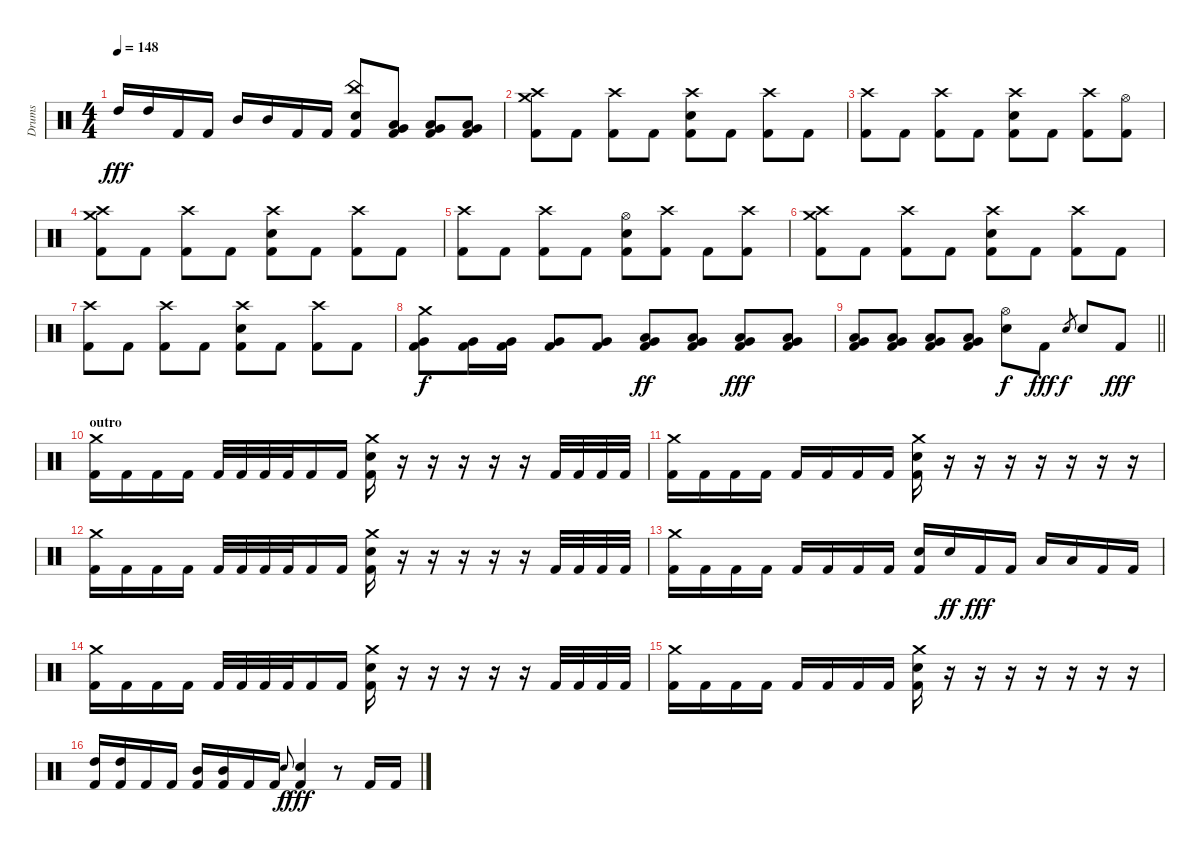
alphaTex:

\track ("Drums" "Drums") {instrument percussion}
\staff {score}
\articulation defaults
\ts (4 4)
\tempo 148
\clef neutral
\ks c "High Tom (hit)".16{dy fff} "High Tom (hit)".16 "Kick (hit) 2".16 "Kick (hit) 2".16 "Mid Tom (hit)".16 "Mid Tom (hit)".16 "Kick (hit) 2".16 "Kick (hit) 2".16
("China (hit)" "Electric Snare (hit)" "Kick (hit) 2").8 ("Low Tom (hit)" "Very Low Tom (hit)" "Kick (hit) 2").8 ("Low Tom (hit)" "Very Low Tom (hit)" "Kick (hit) 2").8 ("Low Tom (hit)" "Very Low Tom (hit)" "Kick (hit) 2").8 |
("Crash high (hit)" "Crash medium (hit)" "Kick (hit) 2").8 "Kick (hit) 2".8 ("Crash high (hit)" "Kick (hit) 2").8 "Kick (hit) 2".8 ("Crash high (hit)" "Electric Snare (hit)" "Kick (hit) 2").8 "Kick (hit) 2".8 ("Crash high (hit)" "Kick (hit) 2").8 "Kick (hit) 2".8 |
("Crash high (hit)" "Kick (hit) 2").8 "Kick (hit) 2".8 ("Crash high (hit)" "Kick (hit) 2").8 "Kick (hit) 2".8 ("Crash high (hit)" "Electric Snare (hit)" "Kick (hit) 2").8 "Kick (hit) 2".8 ("Crash high (hit)" "Kick (hit) 2").8 ("Hi-Hat (open)" "Kick (hit) 2").8 |
("Crash high (hit)" "Crash medium (hit)" "Kick (hit) 2").8 "Kick (hit) 2".8 ("Crash high (hit)" "Kick (hit) 2").8 "Kick (hit) 2".8 ("Crash high (hit)" "Electric Snare (hit)" "Kick (hit) 2").8 "Kick (hit) 2".8 ("Crash high (hit)" "Kick (hit) 2").8 "Kick (hit) 2".8 |
("Crash high (hit)" "Kick (hit) 2").8 "Kick (hit) 2".8 ("Crash high (hit)" "Kick (hit) 2").8 "Kick (hit) 2".8 ("Hi-Hat (open)" "Electric Snare (hit)" "Kick (hit) 2").8 ("Crash high (hit)" "Kick (hit) 2").8 "Kick (hit) 2".8 ("Crash high (hit)" "Kick (hit) 2").8 |
("Crash high (hit)" "Crash medium (hit)" "Kick (hit) 2").8 "Kick (hit) 2".8 ("Crash high (hit)" "Kick (hit) 2").8 "Kick (hit) 2".8 ("Crash high (hit)" "Electric Snare (hit)" "Kick (hit) 2").8 "Kick (hit) 2".8 ("Crash high (hit)" "Kick (hit) 2").8 "Kick (hit) 2".8 |
("Crash high (hit)" "Kick (hit) 2").8 "Kick (hit) 2".8 ("Crash high (hit)" "Kick (hit) 2").8 "Kick (hit) 2".8 ("Crash high (hit)" "Electric Snare (hit)" "Kick (hit) 2").8 "Kick (hit) 2".8 ("Crash high (hit)" "Kick (hit) 2").8 "Kick (hit) 2".8 |
("Crash medium (hit)" "Very Low Tom (hit)" "Kick (hit) 2").8{dy f} ("Very Low Tom (hit)" "Kick (hit) 2").16 ("Very Low Tom (hit)" "Kick (hit) 2").16 ("Very Low Tom (hit)" "Kick (hit) 2").8 ("Very Low Tom (hit)" "Kick (hit) 2").8 ("Low Tom (hit)" "Very Low Tom (hit)" "Kick (hit) 2").8{dy ff} ("Low Tom (hit)" "Very Low Tom (hit)" "Kick (hit) 2").8 ("Low Tom (hit)" "Very Low Tom (hit)" "Kick (hit) 2").8{dy fff} ("Low Tom (hit)" "Very Low Tom (hit)" "Kick (hit) 2").8 |
\barLineRight lightlight
("Low Tom (hit)" "Very Low Tom (hit)" "Kick (hit) 2").8 ("Low Tom (hit)" "Very Low Tom (hit)" "Kick (hit) 2").8 ("Low Tom (hit)" "Very Low Tom (hit)" "Kick (hit) 2").8 ("Low Tom (hit)" "Very Low Tom (hit)" "Kick (hit) 2").8 ("Hi-Hat (open)" "Electric Snare (hit)").8{dy f} "Kick (hit) 2".8{dy fff} "Electric Snare (hit)".8{gr dy f} "Electric Snare (hit)".8 "Kick (hit) 2".8{dy fff} |
\section ("" "outro")
("Crash medium (hit)" "Kick (hit) 2").16 "Kick (hit) 2".16 "Kick (hit) 2".16 "Kick (hit) 2".16 "Kick (hit) 2".32 "Kick (hit) 2".32 "Kick (hit) 2".32 "Kick (hit) 2".32 "Kick (hit) 2".16 "Kick (hit) 2".16 ("Crash medium (hit)" "Electric Snare (hit)" "Kick (hit) 2").16 r.16 r.16 r.16 r.16 r.16 "Kick (hit) 2".32 "Kick (hit) 2".32 "Kick (hit) 2".32 "Kick (hit) 2".32 |
("Crash medium (hit)" "Kick (hit) 2").16 "Kick (hit) 2".16 "Kick (hit) 2".16 "Kick (hit) 2".16 "Kick (hit) 2".16 "Kick (hit) 2".16 "Kick (hit) 2".16 "Kick (hit) 2".16 ("Crash medium (hit)" "Electric Snare (hit)" "Kick (hit) 2").16 r.16 r.16 r.16 r.16 r.16 r.16 r.16 |
("Crash medium (hit)" "Kick (hit) 2").16 "Kick (hit) 2".16 "Kick (hit) 2".16 "Kick (hit) 2".16 "Kick (hit) 2".32 "Kick (hit) 2".32 "Kick (hit) 2".32 "Kick (hit) 2".32 "Kick (hit) 2".16 "Kick (hit) 2".16 ("Crash medium (hit)" "Electric Snare (hit)" "Kick (hit) 2").16 r.16 r.16 r.16 r.16 r.16 "Kick (hit) 2".32 "Kick (hit) 2".32 "Kick (hit) 2".32 "Kick (hit) 2".32 |
("Crash medium (hit)" "Kick (hit) 2").16 "Kick (hit) 2".16 "Kick (hit) 2".16 "Kick (hit) 2".16 "Kick (hit) 2".16 "Kick (hit) 2".16 "Kick (hit) 2".16 "Kick (hit) 2".16 ("Electric Snare (hit)" "Kick (hit) 2").16 "Electric Snare (hit)".16{dy ff} "Kick (hit) 2".16{dy fff} "Kick (hit) 2".16 "Low Tom (hit)".16 "Low Tom (hit)".16 "Kick (hit) 2".16 "Kick (hit) 2".16 |
("Crash medium (hit)" "Kick (hit) 2").16 "Kick (hit) 2".16 "Kick (hit) 2".16 "Kick (hit) 2".16 "Kick (hit) 2".32 "Kick (hit) 2".32 "Kick (hit) 2".32 "Kick (hit) 2".32 "Kick (hit) 2".16 "Kick (hit) 2".16 ("Crash medium (hit)" "Electric Snare (hit)" "Kick (hit) 2").16 r.16 r.16 r.16 r.16 r.16 "Kick (hit) 2".32 "Kick (hit) 2".32 "Kick (hit) 2".32 "Kick (hit) 2".32 |
("Crash medium (hit)" "Kick (hit) 2").16 "Kick (hit) 2".16 "Kick (hit) 2".16 "Kick (hit) 2".16 "Kick (hit) 2".16 "Kick (hit) 2".16 "Kick (hit) 2".16 "Kick (hit) 2".16 ("Crash medium (hit)" "Electric Snare (hit)" "Kick (hit) 2").16 r.16 r.16 r.16 r.16 r.16 r.16 r.16 |
("High Tom (hit)" "Kick (hit) 2").16 ("High Tom (hit)" "Kick (hit) 2").16 "Kick (hit) 2".16 "Kick (hit) 2".16 ("Mid Tom (hit)" "Kick (hit) 2").16 ("Mid Tom (hit)" "Kick (hit) 2").16 "Kick (hit) 2".16 "Kick (hit) 2".16 "Electric Snare (hit)".8{gr onbeat dy f} ("Electric Snare (hit)" "Kick (hit) 2").4{dy fff} r.8 "Kick (hit) 2".16 "Kick (hit) 2".16
